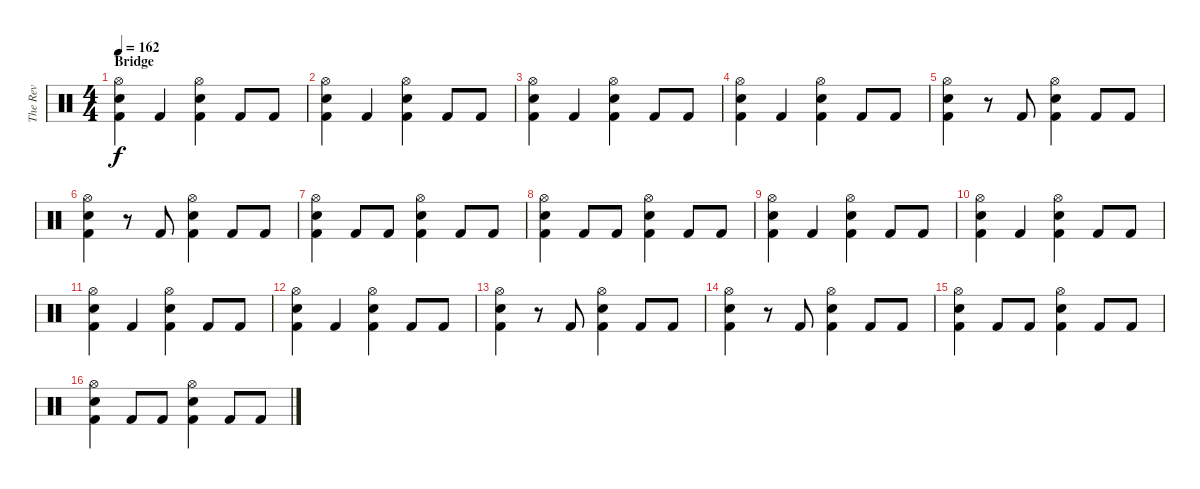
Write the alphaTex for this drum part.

\track ("The Rev" "The Rev") {instrument percussion}
\staff {score}
\articulation defaults
\ts (4 4)
\section ("" "Bridge")
\tempo 162
\clef neutral
\ks c
("Hi-Hat (open)" "Electric Snare (hit)" "Kick (hit) 2").4{dy f} "Kick (hit) 2".4 ("Hi-Hat (open)" "Electric Snare (hit)" "Kick (hit) 2").4 "Kick (hit) 2".8 "Kick (hit) 2".8 |
("Hi-Hat (open)" "Electric Snare (hit)" "Kick (hit) 2").4 "Kick (hit) 2".4 ("Hi-Hat (open)" "Electric Snare (hit)" "Kick (hit) 2").4 "Kick (hit) 2".8 "Kick (hit) 2".8 |
("Hi-Hat (open)" "Electric Snare (hit)" "Kick (hit) 2").4 "Kick (hit) 2".4 ("Hi-Hat (open)" "Electric Snare (hit)" "Kick (hit) 2").4 "Kick (hit) 2".8 "Kick (hit) 2".8 |
("Hi-Hat (open)" "Electric Snare (hit)" "Kick (hit) 2").4 "Kick (hit) 2".4 ("Hi-Hat (open)" "Electric Snare (hit)" "Kick (hit) 2").4 "Kick (hit) 2".8 "Kick (hit) 2".8 |
("Hi-Hat (open)" "Electric Snare (hit)" "Kick (hit) 2").4 r.8 "Kick (hit) 2".8 ("Hi-Hat (open)" "Electric Snare (hit)" "Kick (hit) 2").4 "Kick (hit) 2".8 "Kick (hit) 2".8 |
("Hi-Hat (open)" "Electric Snare (hit)" "Kick (hit) 2").4 r.8 "Kick (hit) 2".8 ("Hi-Hat (open)" "Electric Snare (hit)" "Kick (hit) 2").4 "Kick (hit) 2".8 "Kick (hit) 2".8 |
("Hi-Hat (open)" "Electric Snare (hit)" "Kick (hit) 2").4 "Kick (hit) 2".8 "Kick (hit) 2".8 ("Hi-Hat (open)" "Electric Snare (hit)" "Kick (hit) 2").4 "Kick (hit) 2".8 "Kick (hit) 2".8 |
("Hi-Hat (open)" "Electric Snare (hit)" "Kick (hit) 2").4 "Kick (hit) 2".8 "Kick (hit) 2".8 ("Hi-Hat (open)" "Electric Snare (hit)" "Kick (hit) 2").4 "Kick (hit) 2".8 "Kick (hit) 2".8 |
("Hi-Hat (open)" "Electric Snare (hit)" "Kick (hit) 2").4 "Kick (hit) 2".4 ("Hi-Hat (open)" "Electric Snare (hit)" "Kick (hit) 2").4 "Kick (hit) 2".8 "Kick (hit) 2".8 |
("Hi-Hat (open)" "Electric Snare (hit)" "Kick (hit) 2").4 "Kick (hit) 2".4 ("Hi-Hat (open)" "Electric Snare (hit)" "Kick (hit) 2").4 "Kick (hit) 2".8 "Kick (hit) 2".8 |
("Hi-Hat (open)" "Electric Snare (hit)" "Kick (hit) 2").4 "Kick (hit) 2".4 ("Hi-Hat (open)" "Electric Snare (hit)" "Kick (hit) 2").4 "Kick (hit) 2".8 "Kick (hit) 2".8 |
("Hi-Hat (open)" "Electric Snare (hit)" "Kick (hit) 2").4 "Kick (hit) 2".4 ("Hi-Hat (open)" "Electric Snare (hit)" "Kick (hit) 2").4 "Kick (hit) 2".8 "Kick (hit) 2".8 |
("Hi-Hat (open)" "Electric Snare (hit)" "Kick (hit) 2").4 r.8 "Kick (hit) 2".8 ("Hi-Hat (open)" "Electric Snare (hit)" "Kick (hit) 2").4 "Kick (hit) 2".8 "Kick (hit) 2".8 |
("Hi-Hat (open)" "Electric Snare (hit)" "Kick (hit) 2").4 r.8 "Kick (hit) 2".8 ("Hi-Hat (open)" "Electric Snare (hit)" "Kick (hit) 2").4 "Kick (hit) 2".8 "Kick (hit) 2".8 |
("Hi-Hat (open)" "Electric Snare (hit)" "Kick (hit) 2").4 "Kick (hit) 2".8 "Kick (hit) 2".8 ("Hi-Hat (open)" "Electric Snare (hit)" "Kick (hit) 2").4 "Kick (hit) 2".8 "Kick (hit) 2".8 |
("Hi-Hat (open)" "Electric Snare (hit)" "Kick (hit) 2").4 "Kick (hit) 2".8 "Kick (hit) 2".8 ("Hi-Hat (open)" "Electric Snare (hit)" "Kick (hit) 2").4 "Kick (hit) 2".8 "Kick (hit) 2".8
